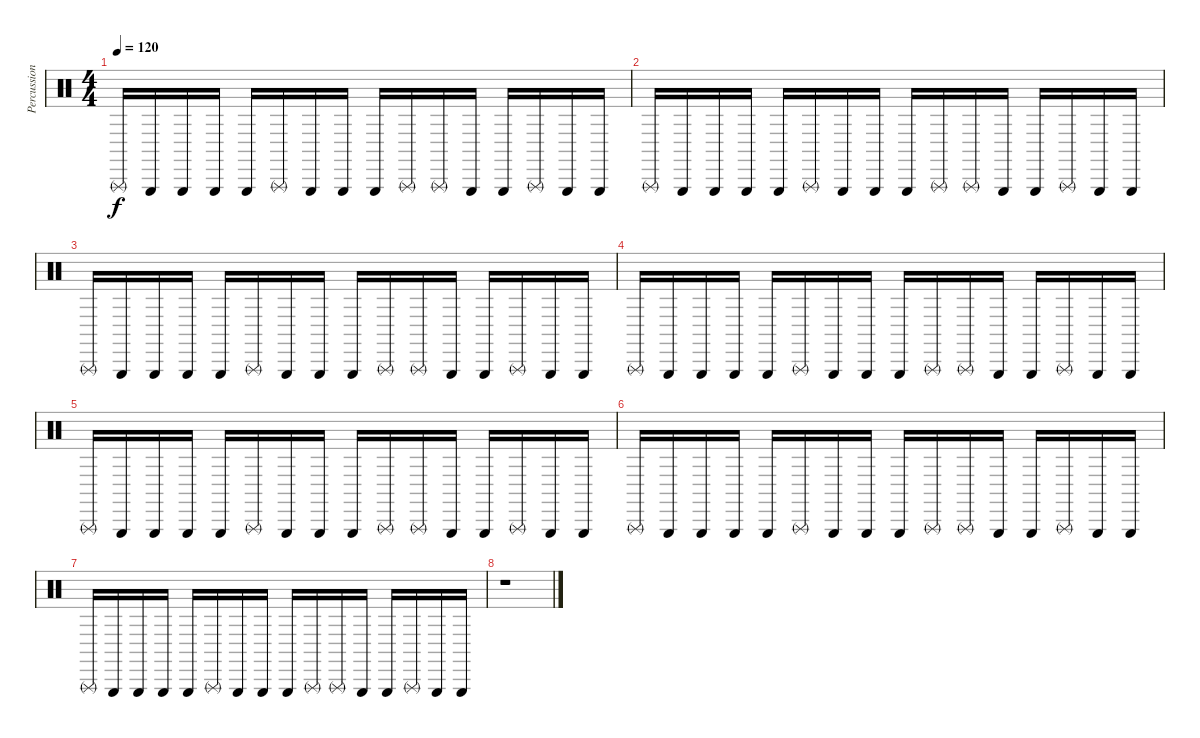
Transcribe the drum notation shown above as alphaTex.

\track ("Percussion" "Percussion") {instrument percussion}
\staff {score}
\articulation defaults
\ts (4 4)
\tempo 120
\clef neutral
\ks c "Triangle (rnute)".16{dy f} "Triangle (hit)".16 "Triangle (hit)".16 "Triangle (hit)".16 "Triangle (hit)".16 "Triangle (rnute)".16 "Triangle (hit)".16 "Triangle (hit)".16 "Triangle (hit)".16 "Triangle (rnute)".16 "Triangle (rnute)".16 "Triangle (hit)".16 "Triangle (hit)".16 "Triangle (rnute)".16 "Triangle (hit)".16 "Triangle (hit)".16
|
"Triangle (rnute)".16 "Triangle (hit)".16 "Triangle (hit)".16 "Triangle (hit)".16 "Triangle (hit)".16 "Triangle (rnute)".16 "Triangle (hit)".16 "Triangle (hit)".16 "Triangle (hit)".16 "Triangle (rnute)".16 "Triangle (rnute)".16 "Triangle (hit)".16 "Triangle (hit)".16 "Triangle (rnute)".16 "Triangle (hit)".16 "Triangle (hit)".16 |
"Triangle (rnute)".16 "Triangle (hit)".16 "Triangle (hit)".16 "Triangle (hit)".16 "Triangle (hit)".16 "Triangle (rnute)".16 "Triangle (hit)".16 "Triangle (hit)".16 "Triangle (hit)".16 "Triangle (rnute)".16 "Triangle (rnute)".16 "Triangle (hit)".16 "Triangle (hit)".16 "Triangle (rnute)".16 "Triangle (hit)".16 "Triangle (hit)".16 |
"Triangle (rnute)".16 "Triangle (hit)".16 "Triangle (hit)".16 "Triangle (hit)".16 "Triangle (hit)".16 "Triangle (rnute)".16 "Triangle (hit)".16 "Triangle (hit)".16 "Triangle (hit)".16 "Triangle (rnute)".16 "Triangle (rnute)".16 "Triangle (hit)".16 "Triangle (hit)".16 "Triangle (rnute)".16 "Triangle (hit)".16 "Triangle (hit)".16 |
"Triangle (rnute)".16 "Triangle (hit)".16 "Triangle (hit)".16 "Triangle (hit)".16 "Triangle (hit)".16 "Triangle (rnute)".16 "Triangle (hit)".16 "Triangle (hit)".16 "Triangle (hit)".16 "Triangle (rnute)".16 "Triangle (rnute)".16 "Triangle (hit)".16 "Triangle (hit)".16 "Triangle (rnute)".16 "Triangle (hit)".16 "Triangle (hit)".16 |
"Triangle (rnute)".16 "Triangle (hit)".16 "Triangle (hit)".16 "Triangle (hit)".16 "Triangle (hit)".16 "Triangle (rnute)".16 "Triangle (hit)".16 "Triangle (hit)".16 "Triangle (hit)".16 "Triangle (rnute)".16 "Triangle (rnute)".16 "Triangle (hit)".16 "Triangle (hit)".16 "Triangle (rnute)".16 "Triangle (hit)".16 "Triangle (hit)".16 |
"Triangle (rnute)".16 "Triangle (hit)".16 "Triangle (hit)".16 "Triangle (hit)".16 "Triangle (hit)".16 "Triangle (rnute)".16 "Triangle (hit)".16 "Triangle (hit)".16 "Triangle (hit)".16 "Triangle (rnute)".16 "Triangle (rnute)".16 "Triangle (hit)".16 "Triangle (hit)".16 "Triangle (rnute)".16 "Triangle (hit)".16 "Triangle (hit)".16 |
r.1
